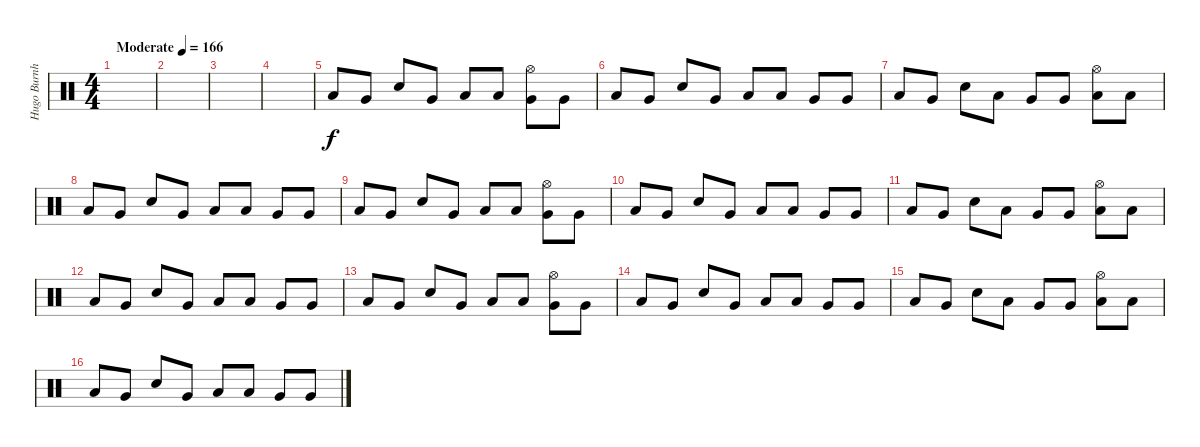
\track ("Hugo Burnham" "Hugo Burnh") {instrument percussion}
\staff {score}
\articulation defaults
\ts (4 4)
\tempo (166 "Moderate")
\clef neutral
\ks c
|
|
|
|
"Low Tom (hit)".8 "Very Low Tom (hit)".8 "Electric Snare (hit)".8 "Very Low Tom (hit)".8 "Low Tom (hit)".8 "Low Tom (hit)".8 ("Hi-Hat (open)" "Very Low Tom (hit)").8 "Very Low Tom (hit)".8 |
"Low Tom (hit)".8 "Very Low Tom (hit)".8 "Electric Snare (hit)".8 "Very Low Tom (hit)".8 "Low Tom (hit)".8 "Low Tom (hit)".8 "Very Low Tom (hit)".8 "Very Low Tom (hit)".8 |
"Low Tom (hit)".8 "Very Low Tom (hit)".8 "Electric Snare (hit)".8 "Low Tom (hit)".8 "Very Low Tom (hit)".8 "Very Low Tom (hit)".8 ("Hi-Hat (open)" "Low Tom (hit)").8 "Low Tom (hit)".8 |
"Low Tom (hit)".8 "Very Low Tom (hit)".8 "Electric Snare (hit)".8 "Very Low Tom (hit)".8 "Low Tom (hit)".8 "Low Tom (hit)".8 "Very Low Tom (hit)".8 "Very Low Tom (hit)".8 |
"Low Tom (hit)".8 "Very Low Tom (hit)".8 "Electric Snare (hit)".8 "Very Low Tom (hit)".8 "Low Tom (hit)".8 "Low Tom (hit)".8 ("Hi-Hat (open)" "Very Low Tom (hit)").8 "Very Low Tom (hit)".8 |
"Low Tom (hit)".8 "Very Low Tom (hit)".8 "Electric Snare (hit)".8 "Very Low Tom (hit)".8 "Low Tom (hit)".8 "Low Tom (hit)".8 "Very Low Tom (hit)".8 "Very Low Tom (hit)".8 |
"Low Tom (hit)".8 "Very Low Tom (hit)".8 "Electric Snare (hit)".8 "Low Tom (hit)".8 "Very Low Tom (hit)".8 "Very Low Tom (hit)".8 ("Hi-Hat (open)" "Low Tom (hit)").8 "Low Tom (hit)".8 |
"Low Tom (hit)".8 "Very Low Tom (hit)".8 "Electric Snare (hit)".8 "Very Low Tom (hit)".8 "Low Tom (hit)".8 "Low Tom (hit)".8 "Very Low Tom (hit)".8 "Very Low Tom (hit)".8 |
"Low Tom (hit)".8 "Very Low Tom (hit)".8 "Electric Snare (hit)".8 "Very Low Tom (hit)".8 "Low Tom (hit)".8 "Low Tom (hit)".8 ("Hi-Hat (open)" "Very Low Tom (hit)").8 "Very Low Tom (hit)".8 |
"Low Tom (hit)".8 "Very Low Tom (hit)".8 "Electric Snare (hit)".8 "Very Low Tom (hit)".8 "Low Tom (hit)".8 "Low Tom (hit)".8 "Very Low Tom (hit)".8 "Very Low Tom (hit)".8 |
"Low Tom (hit)".8 "Very Low Tom (hit)".8 "Electric Snare (hit)".8 "Low Tom (hit)".8 "Very Low Tom (hit)".8 "Very Low Tom (hit)".8 ("Hi-Hat (open)" "Low Tom (hit)").8 "Low Tom (hit)".8 |
"Low Tom (hit)".8 "Very Low Tom (hit)".8 "Electric Snare (hit)".8 "Very Low Tom (hit)".8 "Low Tom (hit)".8 "Low Tom (hit)".8 "Very Low Tom (hit)".8 "Very Low Tom (hit)".8
